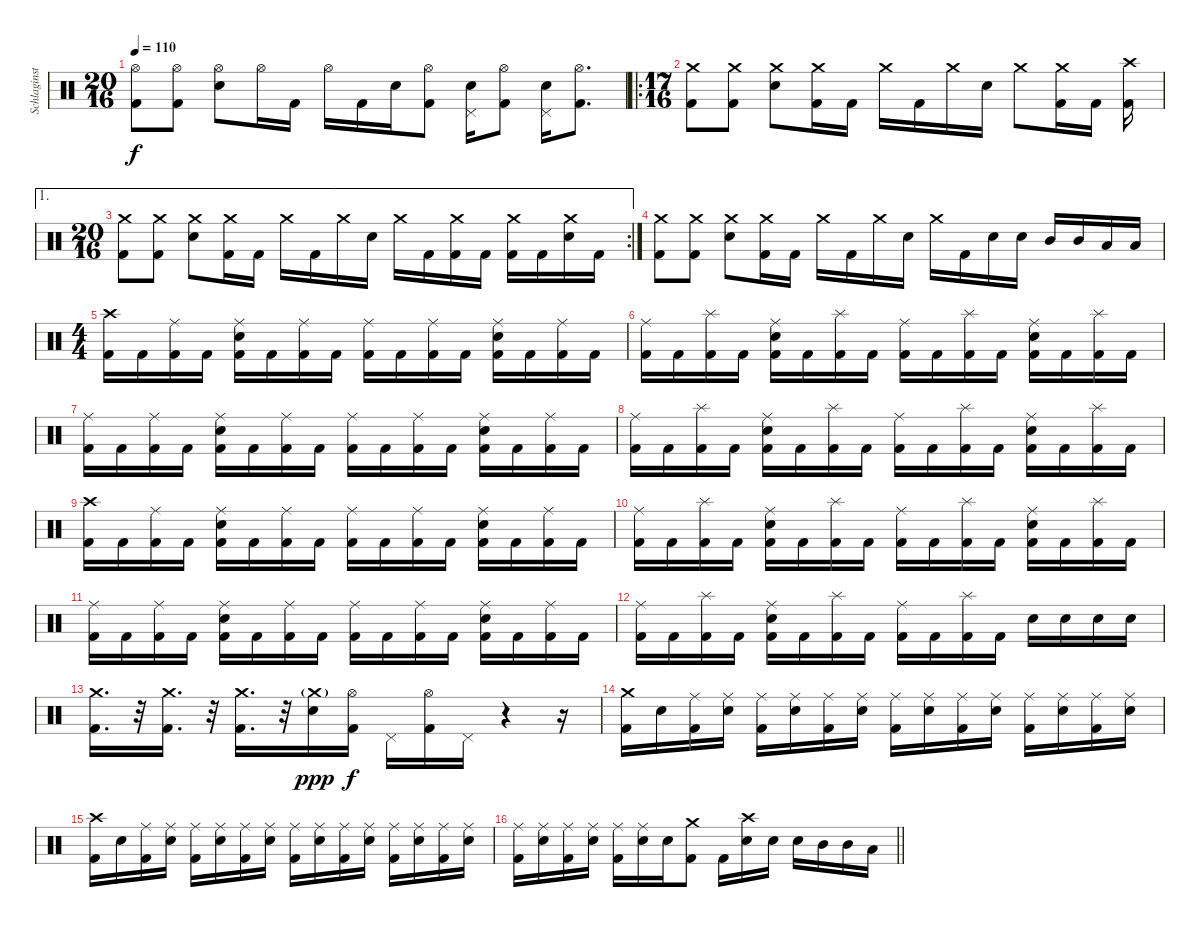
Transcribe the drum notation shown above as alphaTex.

\track ("Schlaginstrumente - Auswahl" "Schlaginst") {instrument percussion}
\staff {score}
\articulation defaults
\ts (20 16)
\tempo 110
\clef neutral
\ks c
("Hi-Hat (open)" "Kick (hit) 2").8{dy f} ("Hi-Hat (open)" "Kick (hit) 2").8 ("Hi-Hat (open)" "Electric Snare (hit)").8 "Hi-Hat (open)".16 "Kick (hit) 2".16 "Hi-Hat (open)".16 "Kick (hit) 2".16 "Electric Snare (hit)".16 ("Hi-Hat (open)" "Kick (hit) 2").8 ("Pedal Hi-Hat (hit)" "Electric Snare (hit)").16 ("Hi-Hat (open)" "Kick (hit) 2").8 ("Pedal Hi-Hat (hit)" "Electric Snare (hit)").16 ("Hi-Hat (open)" "Kick (hit) 2").8{d} |
\ro
\ts (17 16)
("Crash medium (hit)" "Kick (hit) 2").8 ("Crash medium (hit)" "Kick (hit) 2").8 ("Crash medium (hit)" "Electric Snare (hit)").8 ("Crash medium (hit)" "Kick (hit) 2").16 "Kick (hit) 2".16 "Crash medium (hit)".16 "Kick (hit) 2".16 "Crash medium (hit)".16 "Electric Snare (hit)".16 "Crash medium (hit)".8 ("Crash medium (hit)" "Kick (hit) 2").16 "Kick (hit) 2".16 ("Crash high (hit)" "Kick (hit) 2").16 |
\ae 1
\rc 2
\ts (20 16)
("Crash medium (hit)" "Kick (hit) 2").8 ("Crash medium (hit)" "Kick (hit) 2").8 ("Crash medium (hit)" "Electric Snare (hit)").8 ("Crash medium (hit)" "Kick (hit) 2").16 "Kick (hit) 2".16 "Crash medium (hit)".16 "Kick (hit) 2".16 "Crash medium (hit)".16 "Electric Snare (hit)".16 "Crash medium (hit)".16 "Kick (hit) 2".16 ("Crash medium (hit)" "Kick (hit) 2").16 "Kick (hit) 2".16 ("Crash medium (hit)" "Kick (hit) 2").16 "Kick (hit) 2".16 ("Crash medium (hit)" "Electric Snare (hit)").16 "Kick (hit) 2".16 |
("Crash medium (hit)" "Kick (hit) 2").8 ("Crash medium (hit)" "Kick (hit) 2").8 ("Crash medium (hit)" "Electric Snare (hit)").8 ("Crash medium (hit)" "Kick (hit) 2").16 "Kick (hit) 2".16 "Crash medium (hit)".16 "Kick (hit) 2".16 "Crash medium (hit)".16 "Electric Snare (hit)".16 "Crash medium (hit)".16 "Kick (hit) 2".16 "Electric Snare (hit)".16 "Electric Snare (hit)".16 "Mid Tom (hit)".16 "Mid Tom (hit)".16 "Low Tom (hit)".16 "Low Tom (hit)".16 |
\ts (4 4)
("Crash high (hit)" "Kick (hit) 2").16 "Kick (hit) 2".16 ("Ride (middle)" "Kick (hit) 2").16 "Kick (hit) 2".16 ("Ride (middle)" "Electric Snare (hit)" "Kick (hit) 2").16 "Kick (hit) 2".16 ("Ride (middle)" "Kick (hit) 2").16 "Kick (hit) 2".16 ("Ride (middle)" "Kick (hit) 2").16 "Kick (hit) 2".16 ("Ride (middle)" "Kick (hit) 2").16 "Kick (hit) 2".16 ("Ride (middle)" "Electric Snare (hit)" "Kick (hit) 2").16 "Kick (hit) 2".16 ("Ride (middle)" "Kick (hit) 2").16 "Kick (hit) 2".16 |
("Ride (middle)" "Kick (hit) 2").16 "Kick (hit) 2".16 ("Splash (hit)" "Kick (hit) 2").16 "Kick (hit) 2".16 ("Ride (middle)" "Electric Snare (hit)" "Kick (hit) 2").16 "Kick (hit) 2".16 ("Splash (hit)" "Kick (hit) 2").16 "Kick (hit) 2".16 ("Ride (middle)" "Kick (hit) 2").16 "Kick (hit) 2".16 ("Splash (hit)" "Kick (hit) 2").16 "Kick (hit) 2".16 ("Ride (middle)" "Electric Snare (hit)" "Kick (hit) 2").16 "Kick (hit) 2".16 ("Splash (hit)" "Kick (hit) 2").16 "Kick (hit) 2".16 |
("Ride (middle)" "Kick (hit) 2").16 "Kick (hit) 2".16 ("Ride (middle)" "Kick (hit) 2").16 "Kick (hit) 2".16 ("Ride (middle)" "Electric Snare (hit)" "Kick (hit) 2").16 "Kick (hit) 2".16 ("Ride (middle)" "Kick (hit) 2").16 "Kick (hit) 2".16 ("Ride (middle)" "Kick (hit) 2").16 "Kick (hit) 2".16 ("Ride (middle)" "Kick (hit) 2").16 "Kick (hit) 2".16 ("Ride (middle)" "Electric Snare (hit)" "Kick (hit) 2").16 "Kick (hit) 2".16 ("Ride (middle)" "Kick (hit) 2").16 "Kick (hit) 2".16 |
("Ride (middle)" "Kick (hit) 2").16 "Kick (hit) 2".16 ("Splash (hit)" "Kick (hit) 2").16 "Kick (hit) 2".16 ("Ride (middle)" "Electric Snare (hit)" "Kick (hit) 2").16 "Kick (hit) 2".16 ("Splash (hit)" "Kick (hit) 2").16 "Kick (hit) 2".16 ("Ride (middle)" "Kick (hit) 2").16 "Kick (hit) 2".16 ("Splash (hit)" "Kick (hit) 2").16 "Kick (hit) 2".16 ("Ride (middle)" "Electric Snare (hit)" "Kick (hit) 2").16 "Kick (hit) 2".16 ("Splash (hit)" "Kick (hit) 2").16 "Kick (hit) 2".16 |
("Crash high (hit)" "Kick (hit) 2").16 "Kick (hit) 2".16 ("Ride (middle)" "Kick (hit) 2").16 "Kick (hit) 2".16 ("Ride (middle)" "Electric Snare (hit)" "Kick (hit) 2").16 "Kick (hit) 2".16 ("Ride (middle)" "Kick (hit) 2").16 "Kick (hit) 2".16 ("Ride (middle)" "Kick (hit) 2").16 "Kick (hit) 2".16 ("Ride (middle)" "Kick (hit) 2").16 "Kick (hit) 2".16 ("Ride (middle)" "Electric Snare (hit)" "Kick (hit) 2").16 "Kick (hit) 2".16 ("Ride (middle)" "Kick (hit) 2").16 "Kick (hit) 2".16 |
("Ride (middle)" "Kick (hit) 2").16 "Kick (hit) 2".16 ("Splash (hit)" "Kick (hit) 2").16 "Kick (hit) 2".16 ("Ride (middle)" "Electric Snare (hit)" "Kick (hit) 2").16 "Kick (hit) 2".16 ("Splash (hit)" "Kick (hit) 2").16 "Kick (hit) 2".16 ("Ride (middle)" "Kick (hit) 2").16 "Kick (hit) 2".16 ("Splash (hit)" "Kick (hit) 2").16 "Kick (hit) 2".16 ("Ride (middle)" "Electric Snare (hit)" "Kick (hit) 2").16 "Kick (hit) 2".16 ("Splash (hit)" "Kick (hit) 2").16 "Kick (hit) 2".16 |
("Ride (middle)" "Kick (hit) 2").16 "Kick (hit) 2".16 ("Ride (middle)" "Kick (hit) 2").16 "Kick (hit) 2".16 ("Ride (middle)" "Electric Snare (hit)" "Kick (hit) 2").16 "Kick (hit) 2".16 ("Ride (middle)" "Kick (hit) 2").16 "Kick (hit) 2".16 ("Ride (middle)" "Kick (hit) 2").16 "Kick (hit) 2".16 ("Ride (middle)" "Kick (hit) 2").16 "Kick (hit) 2".16 ("Ride (middle)" "Electric Snare (hit)" "Kick (hit) 2").16 "Kick (hit) 2".16 ("Ride (middle)" "Kick (hit) 2").16 "Kick (hit) 2".16 |
("Ride (middle)" "Kick (hit) 2").16 "Kick (hit) 2".16 ("Splash (hit)" "Kick (hit) 2").16 "Kick (hit) 2".16 ("Ride (middle)" "Electric Snare (hit)" "Kick (hit) 2").16 "Kick (hit) 2".16 ("Splash (hit)" "Kick (hit) 2").16 "Kick (hit) 2".16 ("Ride (middle)" "Kick (hit) 2").16 "Kick (hit) 2".16 ("Splash (hit)" "Kick (hit) 2").16 "Kick (hit) 2".16 "Electric Snare (hit)".16 "Electric Snare (hit)".16 "Electric Snare (hit)".16 "Electric Snare (hit)".16 |
("Crash medium (hit)" "Kick (hit) 2").16{d} r.32{volume 0} ("Crash medium (hit)" "Kick (hit) 2").16{d volume 16} r.32{volume 0} ("Crash medium (hit)" "Kick (hit) 2").16{d volume 16} r.32{volume 0} ("Crash medium (hit)"{g} "Electric Snare (hit)").16{dy ppp volume 16} ("Hi-Hat (open)" "Kick (hit) 2").16{dy f} "Pedal Hi-Hat (hit)".16 ("Hi-Hat (open)" "Kick (hit) 2").16 "Pedal Hi-Hat (hit)".16 r.4 r.16 |
("Crash medium (hit)" "Kick (hit) 2").16 "Electric Snare (hit)".16 ("Ride (middle)" "Kick (hit) 2").16 ("Ride (middle)" "Electric Snare (hit)").16 ("Ride (middle)" "Kick (hit) 2").16 ("Ride (middle)" "Electric Snare (hit)").16 ("Ride (middle)" "Kick (hit) 2").16 ("Ride (middle)" "Electric Snare (hit)").16 ("Ride (middle)" "Kick (hit) 2").16 ("Ride (middle)" "Electric Snare (hit)").16 ("Ride (middle)" "Kick (hit) 2").16 ("Ride (middle)" "Electric Snare (hit)").16 ("Ride (middle)" "Kick (hit) 2").16 ("Ride (middle)" "Electric Snare (hit)").16 ("Ride (middle)" "Kick (hit) 2").16 ("Ride (middle)" "Electric Snare (hit)").16 |
("Crash high (hit)" "Kick (hit) 2").16 "Electric Snare (hit)".16 ("Ride (middle)" "Kick (hit) 2").16 ("Ride (middle)" "Electric Snare (hit)").16 ("Ride (middle)" "Kick (hit) 2").16 ("Ride (middle)" "Electric Snare (hit)").16 ("Ride (middle)" "Kick (hit) 2").16 ("Ride (middle)" "Electric Snare (hit)").16 ("Ride (middle)" "Kick (hit) 2").16 ("Ride (middle)" "Electric Snare (hit)").16 ("Ride (middle)" "Kick (hit) 2").16 ("Ride (middle)" "Electric Snare (hit)").16 ("Ride (middle)" "Kick (hit) 2").16 ("Ride (middle)" "Electric Snare (hit)").16 ("Ride (middle)" "Kick (hit) 2").16 ("Ride (middle)" "Electric Snare (hit)").16 |
\barLineRight lightlight
("Ride (middle)" "Kick (hit) 2").16 ("Ride (middle)" "Electric Snare (hit)").16 ("Ride (middle)" "Kick (hit) 2").16 ("Ride (middle)" "Electric Snare (hit)").16 ("Ride (middle)" "Kick (hit) 2").16 ("Ride (middle)" "Electric Snare (hit)").16 "Electric Snare (hit)".16 ("Crash medium (hit)" "Kick (hit) 2").8 "Kick (hit) 2".16 ("Crash high (hit)" "Electric Snare (hit)").16 "Electric Snare (hit)".16 "Electric Snare (hit)".16 "Mid Tom (hit)".16 "Mid Tom (hit)".16 "Low Tom (hit)".16
